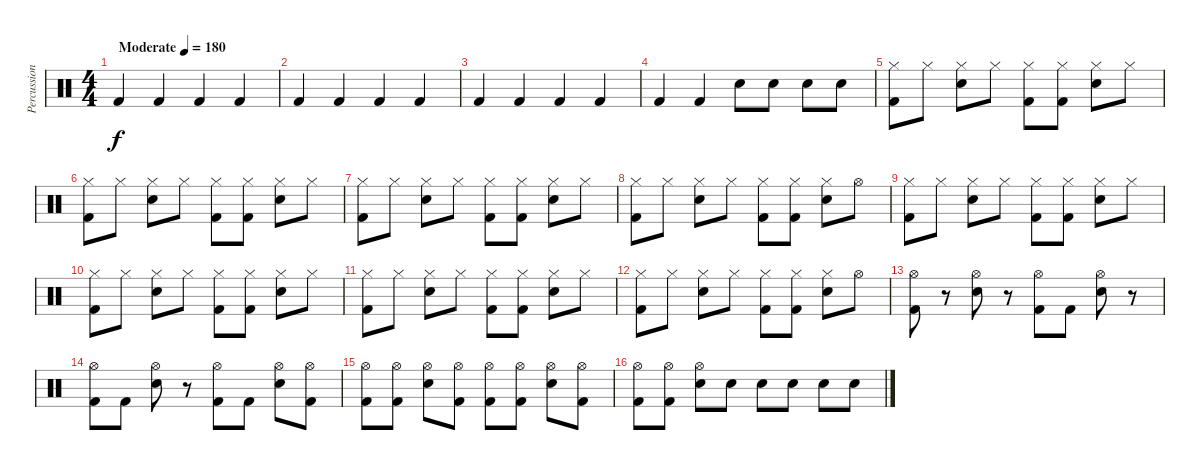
\track ("Percussioni" "Percussion") {instrument percussion}
\staff {score}
\articulation defaults
\ts (4 4)
\tempo (180 "Moderate")
\clef neutral
\ks c "Kick (hit) 2".4{dy f} "Kick (hit) 2".4 "Kick (hit) 2".4 "Kick (hit) 2".4
|
"Kick (hit) 2".4 "Kick (hit) 2".4 "Kick (hit) 2".4 "Kick (hit) 2".4 |
"Kick (hit) 2".4 "Kick (hit) 2".4 "Kick (hit) 2".4 "Kick (hit) 2".4 |
"Kick (hit) 2".4 "Kick (hit) 2".4 "Electric Snare (hit)".8 "Electric Snare (hit)".8 "Electric Snare (hit)".8 "Electric Snare (hit)".8 |
("Hi-Hat (closed)" "Kick (hit) 2").8 "Hi-Hat (closed)".8 ("Hi-Hat (closed)" "Electric Snare (hit)").8 "Hi-Hat (closed)".8 ("Hi-Hat (closed)" "Kick (hit) 2").8 ("Hi-Hat (closed)" "Kick (hit) 2").8 ("Hi-Hat (closed)" "Electric Snare (hit)").8 "Hi-Hat (closed)".8 |
("Hi-Hat (closed)" "Kick (hit) 2").8 "Hi-Hat (closed)".8 ("Hi-Hat (closed)" "Electric Snare (hit)").8 "Hi-Hat (closed)".8 ("Hi-Hat (closed)" "Kick (hit) 2").8 ("Hi-Hat (closed)" "Kick (hit) 2").8 ("Hi-Hat (closed)" "Electric Snare (hit)").8 "Hi-Hat (closed)".8 |
("Hi-Hat (closed)" "Kick (hit) 2").8 "Hi-Hat (closed)".8 ("Hi-Hat (closed)" "Electric Snare (hit)").8 "Hi-Hat (closed)".8 ("Hi-Hat (closed)" "Kick (hit) 2").8 ("Hi-Hat (closed)" "Kick (hit) 2").8 ("Hi-Hat (closed)" "Electric Snare (hit)").8 "Hi-Hat (closed)".8 |
("Hi-Hat (closed)" "Kick (hit) 2").8 "Hi-Hat (closed)".8 ("Hi-Hat (closed)" "Electric Snare (hit)").8 "Hi-Hat (closed)".8 ("Hi-Hat (closed)" "Kick (hit) 2").8 ("Hi-Hat (closed)" "Kick (hit) 2").8 ("Hi-Hat (closed)" "Electric Snare (hit)").8 "Hi-Hat (open)".8 |
("Hi-Hat (closed)" "Kick (hit) 2").8 "Hi-Hat (closed)".8 ("Hi-Hat (closed)" "Electric Snare (hit)").8 "Hi-Hat (closed)".8 ("Hi-Hat (closed)" "Kick (hit) 2").8 ("Hi-Hat (closed)" "Kick (hit) 2").8 ("Hi-Hat (closed)" "Electric Snare (hit)").8 "Hi-Hat (closed)".8 |
("Hi-Hat (closed)" "Kick (hit) 2").8 "Hi-Hat (closed)".8 ("Hi-Hat (closed)" "Electric Snare (hit)").8 "Hi-Hat (closed)".8 ("Hi-Hat (closed)" "Kick (hit) 2").8 ("Hi-Hat (closed)" "Kick (hit) 2").8 ("Hi-Hat (closed)" "Electric Snare (hit)").8 "Hi-Hat (closed)".8 |
("Hi-Hat (closed)" "Kick (hit) 2").8 "Hi-Hat (closed)".8 ("Hi-Hat (closed)" "Electric Snare (hit)").8 "Hi-Hat (closed)".8 ("Hi-Hat (closed)" "Kick (hit) 2").8 ("Hi-Hat (closed)" "Kick (hit) 2").8 ("Hi-Hat (closed)" "Electric Snare (hit)").8 "Hi-Hat (closed)".8 |
("Hi-Hat (closed)" "Kick (hit) 2").8 "Hi-Hat (closed)".8 ("Hi-Hat (closed)" "Electric Snare (hit)").8 "Hi-Hat (closed)".8 ("Hi-Hat (closed)" "Kick (hit) 2").8 ("Hi-Hat (closed)" "Kick (hit) 2").8 ("Hi-Hat (closed)" "Electric Snare (hit)").8 "Hi-Hat (open)".8 |
("Hi-Hat (open)" "Kick (hit) 2").8 r.8 ("Hi-Hat (open)" "Electric Snare (hit)").8 r.8 ("Hi-Hat (open)" "Kick (hit) 2").8 "Kick (hit) 2".8 ("Hi-Hat (open)" "Electric Snare (hit)").8 r.8 |
("Hi-Hat (open)" "Kick (hit) 2").8 "Kick (hit) 2".8 ("Hi-Hat (open)" "Electric Snare (hit)").8 r.8 ("Hi-Hat (open)" "Kick (hit) 2").8 "Kick (hit) 2".8 ("Hi-Hat (open)" "Electric Snare (hit)").8 ("Hi-Hat (open)" "Kick (hit) 2").8 |
("Hi-Hat (open)" "Kick (hit) 2").8 ("Hi-Hat (open)" "Kick (hit) 2").8 ("Hi-Hat (open)" "Electric Snare (hit)").8 ("Hi-Hat (open)" "Kick (hit) 2").8 ("Hi-Hat (open)" "Kick (hit) 2").8 ("Hi-Hat (open)" "Kick (hit) 2").8 ("Hi-Hat (open)" "Electric Snare (hit)").8 ("Hi-Hat (open)" "Kick (hit) 2").8 |
("Hi-Hat (open)" "Kick (hit) 2").8 ("Hi-Hat (open)" "Kick (hit) 2").8 ("Hi-Hat (open)" "Electric Snare (hit)").8 "Electric Snare (hit)".8 "Electric Snare (hit)".8 "Electric Snare (hit)".8 "Electric Snare (hit)".8 "Electric Snare (hit)".8
